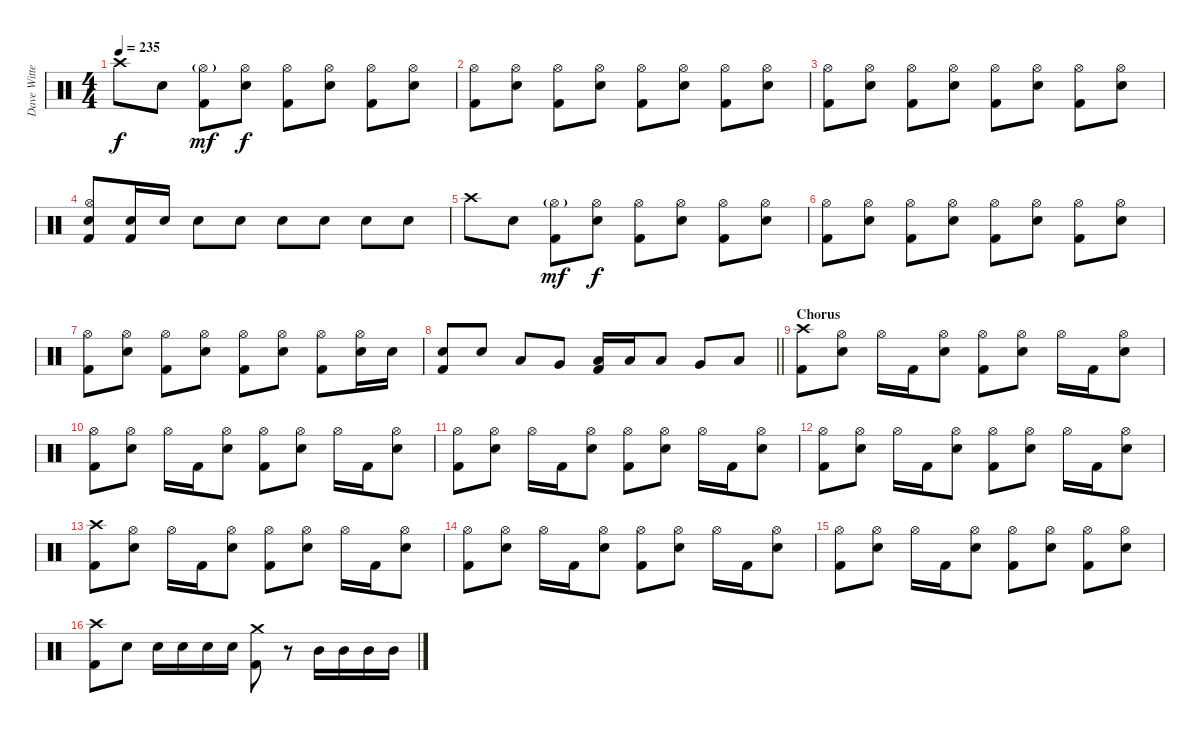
\track ("Dave Witte" "Dave Witte") {instrument percussion}
\staff {score}
\articulation defaults
\ts (4 4)
\tempo 235
\clef neutral
\ks c "Crash high (hit)".8{dy f} "Electric Snare (hit)".8
("Hi-Hat (open)"{g} "Kick (hit) 2").8{dy mf} ("Hi-Hat (open)" "Electric Snare (hit)").8{dy f} ("Hi-Hat (open)" "Kick (hit) 2").8 ("Hi-Hat (open)" "Electric Snare (hit)").8 ("Hi-Hat (open)" "Kick (hit) 2").8 ("Hi-Hat (open)" "Electric Snare (hit)").8 |
("Hi-Hat (open)" "Kick (hit) 2").8 ("Hi-Hat (open)" "Electric Snare (hit)").8 ("Hi-Hat (open)" "Kick (hit) 2").8 ("Hi-Hat (open)" "Electric Snare (hit)").8 ("Hi-Hat (open)" "Kick (hit) 2").8 ("Hi-Hat (open)" "Electric Snare (hit)").8 ("Hi-Hat (open)" "Kick (hit) 2").8 ("Hi-Hat (open)" "Electric Snare (hit)").8 |
("Hi-Hat (open)" "Kick (hit) 2").8 ("Hi-Hat (open)" "Electric Snare (hit)").8 ("Hi-Hat (open)" "Kick (hit) 2").8 ("Hi-Hat (open)" "Electric Snare (hit)").8 ("Hi-Hat (open)" "Kick (hit) 2").8 ("Hi-Hat (open)" "Electric Snare (hit)").8 ("Hi-Hat (open)" "Kick (hit) 2").8 ("Hi-Hat (open)" "Electric Snare (hit)").8 |
("Hi-Hat (open)" "Electric Snare (hit)" "Kick (hit) 2").8 ("Electric Snare (hit)" "Kick (hit) 2").16 "Electric Snare (hit)".16 "Electric Snare (hit)".8 "Electric Snare (hit)".8 "Electric Snare (hit)".8 "Electric Snare (hit)".8 "Electric Snare (hit)".8 "Electric Snare (hit)".8 |
"Crash high (hit)".8 "Electric Snare (hit)".8 ("Hi-Hat (open)"{g} "Kick (hit) 2").8{dy mf} ("Hi-Hat (open)" "Electric Snare (hit)").8{dy f} ("Hi-Hat (open)" "Kick (hit) 2").8 ("Hi-Hat (open)" "Electric Snare (hit)").8 ("Hi-Hat (open)" "Kick (hit) 2").8 ("Hi-Hat (open)" "Electric Snare (hit)").8 |
("Hi-Hat (open)" "Kick (hit) 2").8 ("Hi-Hat (open)" "Electric Snare (hit)").8 ("Hi-Hat (open)" "Kick (hit) 2").8 ("Hi-Hat (open)" "Electric Snare (hit)").8 ("Hi-Hat (open)" "Kick (hit) 2").8 ("Hi-Hat (open)" "Electric Snare (hit)").8 ("Hi-Hat (open)" "Kick (hit) 2").8 ("Hi-Hat (open)" "Electric Snare (hit)").8 |
("Hi-Hat (open)" "Kick (hit) 2").8 ("Hi-Hat (open)" "Electric Snare (hit)").8 ("Hi-Hat (open)" "Kick (hit) 2").8 ("Hi-Hat (open)" "Electric Snare (hit)").8 ("Hi-Hat (open)" "Kick (hit) 2").8 ("Hi-Hat (open)" "Electric Snare (hit)").8 ("Hi-Hat (open)" "Kick (hit) 2").8 ("Hi-Hat (open)" "Electric Snare (hit)").16 "Electric Snare (hit)".16 |
\barLineRight lightlight
("Electric Snare (hit)" "Kick (hit) 2").8 "Electric Snare (hit)".8 "Low Tom (hit)".8 "Very Low Tom (hit)".8 ("Low Tom (hit)" "Kick (hit) 2").16 "Low Tom (hit)".16 "Low Tom (hit)".8 "Very Low Tom (hit)".8 "Low Floor Tom (hit)".8 |
\section ("" "Chorus")
("Crash high (hit)" "Kick (hit) 2").8 ("Hi-Hat (open)" "Electric Snare (hit)").8 "Hi-Hat (open)".16 "Kick (hit) 2".16 ("Hi-Hat (open)" "Electric Snare (hit)").8 ("Hi-Hat (open)" "Kick (hit) 2").8 ("Hi-Hat (open)" "Electric Snare (hit)").8 "Hi-Hat (open)".16 "Kick (hit) 2".16 ("Hi-Hat (open)" "Electric Snare (hit)").8 |
("Hi-Hat (open)" "Kick (hit) 2").8 ("Hi-Hat (open)" "Electric Snare (hit)").8 "Hi-Hat (open)".16 "Kick (hit) 2".16 ("Hi-Hat (open)" "Electric Snare (hit)").8 ("Hi-Hat (open)" "Kick (hit) 2").8 ("Hi-Hat (open)" "Electric Snare (hit)").8 "Hi-Hat (open)".16 "Kick (hit) 2".16 ("Hi-Hat (open)" "Electric Snare (hit)").8 |
("Hi-Hat (open)" "Kick (hit) 2").8 ("Hi-Hat (open)" "Electric Snare (hit)").8 "Hi-Hat (open)".16 "Kick (hit) 2".16 ("Hi-Hat (open)" "Electric Snare (hit)").8 ("Hi-Hat (open)" "Kick (hit) 2").8 ("Hi-Hat (open)" "Electric Snare (hit)").8 "Hi-Hat (open)".16 "Kick (hit) 2".16 ("Hi-Hat (open)" "Electric Snare (hit)").8 |
("Hi-Hat (open)" "Kick (hit) 2").8 ("Hi-Hat (open)" "Electric Snare (hit)").8 "Hi-Hat (open)".16 "Kick (hit) 2".16 ("Hi-Hat (open)" "Electric Snare (hit)").8 ("Hi-Hat (open)" "Kick (hit) 2").8 ("Hi-Hat (open)" "Electric Snare (hit)").8 "Hi-Hat (open)".16 "Kick (hit) 2".16 ("Hi-Hat (open)" "Electric Snare (hit)").8 |
("Crash high (hit)" "Kick (hit) 2").8 ("Hi-Hat (open)" "Electric Snare (hit)").8 "Hi-Hat (open)".16 "Kick (hit) 2".16 ("Hi-Hat (open)" "Electric Snare (hit)").8 ("Hi-Hat (open)" "Kick (hit) 2").8 ("Hi-Hat (open)" "Electric Snare (hit)").8 "Hi-Hat (open)".16 "Kick (hit) 2".16 ("Hi-Hat (open)" "Electric Snare (hit)").8 |
("Hi-Hat (open)" "Kick (hit) 2").8 ("Hi-Hat (open)" "Electric Snare (hit)").8 "Hi-Hat (open)".16 "Kick (hit) 2".16 ("Hi-Hat (open)" "Electric Snare (hit)").8 ("Hi-Hat (open)" "Kick (hit) 2").8 ("Hi-Hat (open)" "Electric Snare (hit)").8 "Hi-Hat (open)".16 "Kick (hit) 2".16 ("Hi-Hat (open)" "Electric Snare (hit)").8 |
("Hi-Hat (open)" "Kick (hit) 2").8 ("Hi-Hat (open)" "Electric Snare (hit)").8 "Hi-Hat (open)".16 "Kick (hit) 2".16 ("Hi-Hat (open)" "Electric Snare (hit)").8 ("Hi-Hat (open)" "Kick (hit) 2").8 ("Hi-Hat (open)" "Electric Snare (hit)").8 ("Hi-Hat (open)" "Kick (hit) 2").8 ("Hi-Hat (open)" "Electric Snare (hit)").8 |
("Crash high (hit)" "Kick (hit) 2").8 "Electric Snare (hit)".8 "Electric Snare (hit)".16 "Electric Snare (hit)".16 "Electric Snare (hit)".16 "Electric Snare (hit)".16 ("Crash medium (hit)" "Kick (hit) 2").8 r.8 "Mid Tom (hit)".16 "Mid Tom (hit)".16 "Mid Tom (hit)".16 "Mid Tom (hit)".16
